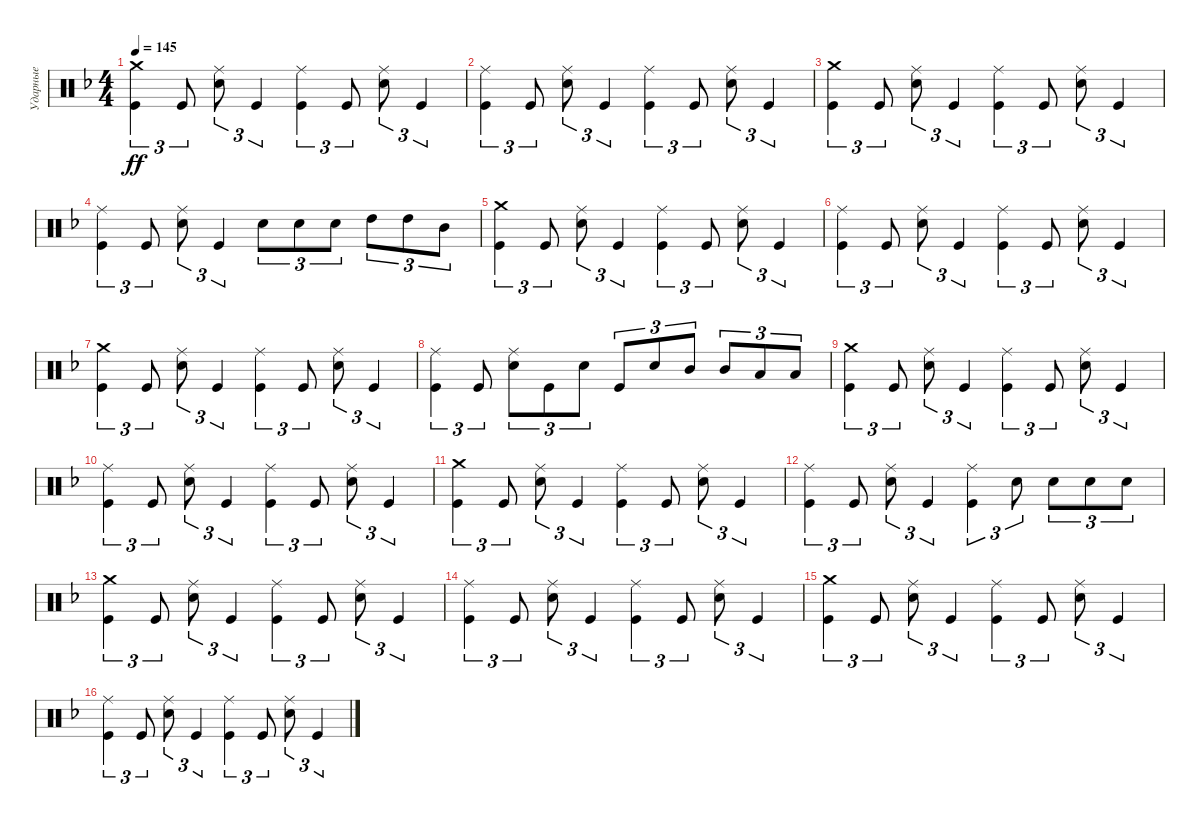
\track ("Ударные" "Ударные") {instrument percussion}
\staff {score}
\articulation defaults
\ts (4 4)
\tempo 145
\clef neutral
\ks dminor
("Crash medium (hit)" "Kick (hit)").4{tu (3 2) dy ff} "Kick (hit)".8{tu (3 2)} ("Ride (middle)" "Electric Snare (hit)").8{tu (3 2)} "Kick (hit)".4{tu (3 2)} ("Ride (middle)" "Kick (hit)").4{tu (3 2)} "Kick (hit)".8{tu (3 2)} ("Ride (middle)" "Electric Snare (hit)").8{tu (3 2)} "Kick (hit)".4{tu (3 2)} |
("Ride (middle)" "Kick (hit)").4{tu (3 2)} "Kick (hit)".8{tu (3 2)} ("Ride (middle)" "Electric Snare (hit)").8{tu (3 2)} "Kick (hit)".4{tu (3 2)} ("Ride (middle)" "Kick (hit)").4{tu (3 2)} "Kick (hit)".8{tu (3 2)} ("Ride (middle)" "Electric Snare (hit)").8{tu (3 2)} "Kick (hit)".4{tu (3 2)} |
("Crash medium (hit)" "Kick (hit)").4{tu (3 2)} "Kick (hit)".8{tu (3 2)} ("Ride (middle)" "Electric Snare (hit)").8{tu (3 2)} "Kick (hit)".4{tu (3 2)} ("Ride (middle)" "Kick (hit)").4{tu (3 2)} "Kick (hit)".8{tu (3 2)} ("Ride (middle)" "Electric Snare (hit)").8{tu (3 2)} "Kick (hit)".4{tu (3 2)} |
("Ride (middle)" "Kick (hit)").4{tu (3 2)} "Kick (hit)".8{tu (3 2)} ("Ride (middle)" "Electric Snare (hit)").8{tu (3 2)} "Kick (hit)".4{tu (3 2)} "Electric Snare (hit)".8{tu (3 2)} "Electric Snare (hit)".8{tu (3 2)} "Electric Snare (hit)".8{tu (3 2)} "High Tom (hit)".8{tu (3 2)} "High Tom (hit)".8{tu (3 2)} "Mid Tom (hit)".8{tu (3 2)} |
("Crash medium (hit)" "Kick (hit)").4{tu (3 2)} "Kick (hit)".8{tu (3 2)} ("Ride (middle)" "Electric Snare (hit)").8{tu (3 2)} "Kick (hit)".4{tu (3 2)} ("Ride (middle)" "Kick (hit)").4{tu (3 2)} "Kick (hit)".8{tu (3 2)} ("Ride (middle)" "Electric Snare (hit)").8{tu (3 2)} "Kick (hit)".4{tu (3 2)} |
("Ride (middle)" "Kick (hit)").4{tu (3 2)} "Kick (hit)".8{tu (3 2)} ("Ride (middle)" "Electric Snare (hit)").8{tu (3 2)} "Kick (hit)".4{tu (3 2)} ("Ride (middle)" "Kick (hit)").4{tu (3 2)} "Kick (hit)".8{tu (3 2)} ("Ride (middle)" "Electric Snare (hit)").8{tu (3 2)} "Kick (hit)".4{tu (3 2)} |
("Crash medium (hit)" "Kick (hit)").4{tu (3 2)} "Kick (hit)".8{tu (3 2)} ("Ride (middle)" "Electric Snare (hit)").8{tu (3 2)} "Kick (hit)".4{tu (3 2)} ("Ride (middle)" "Kick (hit)").4{tu (3 2)} "Kick (hit)".8{tu (3 2)} ("Ride (middle)" "Electric Snare (hit)").8{tu (3 2)} "Kick (hit)".4{tu (3 2)} |
("Ride (middle)" "Kick (hit)").4{tu (3 2)} "Kick (hit)".8{tu (3 2)} ("Ride (middle)" "Electric Snare (hit)").8{tu (3 2)} "Kick (hit)".8{tu (3 2)} "Electric Snare (hit)".8{tu (3 2)} "Kick (hit)".8{tu (3 2)} "Electric Snare (hit)".8{tu (3 2)} "Mid Tom (hit)".8{tu (3 2)} "Mid Tom (hit)".8{tu (3 2)} "Low Tom (hit)".8{tu (3 2)} "Low Tom (hit)".8{tu (3 2)} |
("Crash medium (hit)" "Kick (hit)").4{tu (3 2)} "Kick (hit)".8{tu (3 2)} ("Ride (middle)" "Electric Snare (hit)").8{tu (3 2)} "Kick (hit)".4{tu (3 2)} ("Ride (middle)" "Kick (hit)").4{tu (3 2)} "Kick (hit)".8{tu (3 2)} ("Ride (middle)" "Electric Snare (hit)").8{tu (3 2)} "Kick (hit)".4{tu (3 2)} |
("Ride (middle)" "Kick (hit)").4{tu (3 2)} "Kick (hit)".8{tu (3 2)} ("Ride (middle)" "Electric Snare (hit)").8{tu (3 2)} "Kick (hit)".4{tu (3 2)} ("Ride (middle)" "Kick (hit)").4{tu (3 2)} "Kick (hit)".8{tu (3 2)} ("Ride (middle)" "Electric Snare (hit)").8{tu (3 2)} "Kick (hit)".4{tu (3 2)} |
("Crash medium (hit)" "Kick (hit)").4{tu (3 2)} "Kick (hit)".8{tu (3 2)} ("Ride (middle)" "Electric Snare (hit)").8{tu (3 2)} "Kick (hit)".4{tu (3 2)} ("Ride (middle)" "Kick (hit)").4{tu (3 2)} "Kick (hit)".8{tu (3 2)} ("Ride (middle)" "Electric Snare (hit)").8{tu (3 2)} "Kick (hit)".4{tu (3 2)} |
("Ride (middle)" "Kick (hit)").4{tu (3 2)} "Kick (hit)".8{tu (3 2)} ("Ride (middle)" "Electric Snare (hit)").8{tu (3 2)} "Kick (hit)".4{tu (3 2)} ("Ride (middle)" "Kick (hit)").4{tu (3 2)} "Electric Snare (hit)".8{tu (3 2)} "Electric Snare (hit)".8{tu (3 2)} "Electric Snare (hit)".8{tu (3 2)} "Electric Snare (hit)".8{tu (3 2)} |
("Crash medium (hit)" "Kick (hit)").4{tu (3 2)} "Kick (hit)".8{tu (3 2)} ("Ride (middle)" "Electric Snare (hit)").8{tu (3 2)} "Kick (hit)".4{tu (3 2)} ("Ride (middle)" "Kick (hit)").4{tu (3 2)} "Kick (hit)".8{tu (3 2)} ("Ride (middle)" "Electric Snare (hit)").8{tu (3 2)} "Kick (hit)".4{tu (3 2)} |
("Ride (middle)" "Kick (hit)").4{tu (3 2)} "Kick (hit)".8{tu (3 2)} ("Ride (middle)" "Electric Snare (hit)").8{tu (3 2)} "Kick (hit)".4{tu (3 2)} ("Ride (middle)" "Kick (hit)").4{tu (3 2)} "Kick (hit)".8{tu (3 2)} ("Ride (middle)" "Electric Snare (hit)").8{tu (3 2)} "Kick (hit)".4{tu (3 2)} |
("Crash medium (hit)" "Kick (hit)").4{tu (3 2)} "Kick (hit)".8{tu (3 2)} ("Ride (middle)" "Electric Snare (hit)").8{tu (3 2)} "Kick (hit)".4{tu (3 2)} ("Ride (middle)" "Kick (hit)").4{tu (3 2)} "Kick (hit)".8{tu (3 2)} ("Ride (middle)" "Electric Snare (hit)").8{tu (3 2)} "Kick (hit)".4{tu (3 2)} |
("Ride (middle)" "Kick (hit)").4{tu (3 2)} "Kick (hit)".8{tu (3 2)} ("Ride (middle)" "Electric Snare (hit)").8{tu (3 2)} "Kick (hit)".4{tu (3 2)} ("Ride (middle)" "Kick (hit)").4{tu (3 2)} "Kick (hit)".8{tu (3 2)} ("Ride (middle)" "Electric Snare (hit)").8{tu (3 2)} "Kick (hit)".4{tu (3 2)}
